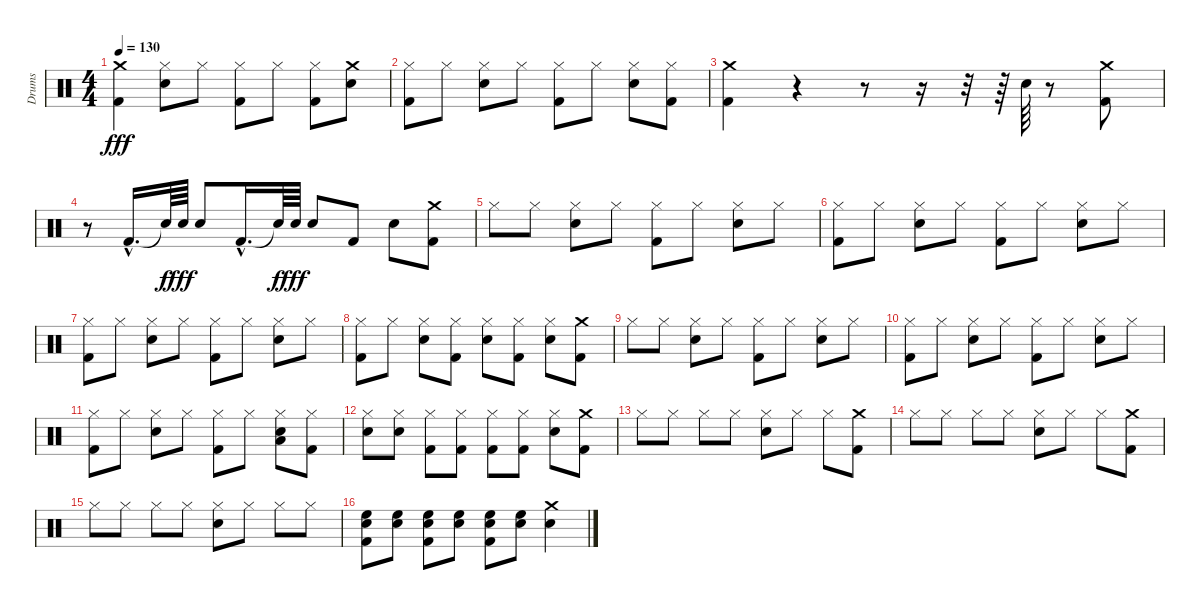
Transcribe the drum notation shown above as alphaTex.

\track ("Drums" "Drums") {instrument percussion}
\staff {score}
\articulation defaults
\ts (4 4)
\tempo 130
\clef neutral
\ks c
("Kick (hit) 2" "Crash medium (hit)").4{dy fff} ("Hi-Hat (closed)" "Snare (hit) 2").8 "Hi-Hat (closed)".8 ("Kick (hit) 2" "Hi-Hat (closed)").8 "Hi-Hat (closed)".8 ("Kick (hit) 2" "Hi-Hat (closed)").8 ("Crash medium (hit)" "Snare (hit) 2").8 |
("Kick (hit) 2" "Hi-Hat (closed)").8 "Hi-Hat (closed)".8 ("Snare (hit) 2" "Hi-Hat (closed)").8 "Hi-Hat (closed)".8 ("Kick (hit) 2" "Hi-Hat (closed)").8 "Hi-Hat (closed)".8 ("Snare (hit) 2" "Hi-Hat (closed)").8 ("Kick (hit) 2" "Hi-Hat (closed)").8 |
("Kick (hit) 2" "Crash medium (hit)").4 r.4 r.8 r.16 r.32 r.64 "Snare (hit) 2".64 r.8 ("Kick (hit) 2" "Crash medium (hit)").8 |
r.8 "Kick (hit) 2"{hac}.16{d} "Snare (hit)"{t}.64{dy f} "Snare (hit) 2".64{dy fff} "Snare (hit) 2".8 "Kick (hit) 2"{hac}.16{d} "Snare (hit)"{t}.64{dy f} "Snare (hit) 2".64{dy fff} "Snare (hit) 2".8 "Kick (hit) 2".8 "Snare (hit) 2".8 ("Crash medium (hit)" "Kick (hit) 2").8 |
"Hi-Hat (closed)".8 "Hi-Hat (closed)".8 ("Snare (hit) 2" "Hi-Hat (closed)").8 "Hi-Hat (closed)".8 ("Kick (hit) 2" "Hi-Hat (closed)").8 "Hi-Hat (closed)".8 ("Snare (hit) 2" "Hi-Hat (closed)").8 "Hi-Hat (closed)".8 |
("Kick (hit) 2" "Hi-Hat (closed)").8 "Hi-Hat (closed)".8 ("Snare (hit) 2" "Hi-Hat (closed)").8 "Hi-Hat (closed)".8 ("Kick (hit) 2" "Hi-Hat (closed)").8 "Hi-Hat (closed)".8 ("Snare (hit) 2" "Hi-Hat (closed)").8 "Hi-Hat (closed)".8 |
("Kick (hit) 2" "Hi-Hat (closed)").8 "Hi-Hat (closed)".8 ("Snare (hit) 2" "Hi-Hat (closed)").8 "Hi-Hat (closed)".8 ("Kick (hit) 2" "Hi-Hat (closed)").8 "Hi-Hat (closed)".8 ("Snare (hit) 2" "Hi-Hat (closed)").8 "Hi-Hat (closed)".8 |
("Hi-Hat (closed)" "Kick (hit) 2").8 "Hi-Hat (closed)".8 ("Snare (hit) 2" "Hi-Hat (closed)").8 ("Kick (hit) 2" "Hi-Hat (closed)").8 ("Snare (hit) 2" "Hi-Hat (closed)").8 ("Hi-Hat (closed)" "Kick (hit) 2").8 ("Snare (hit) 2" "Hi-Hat (closed)").8 ("Crash medium (hit)" "Kick (hit) 2").8 |
"Hi-Hat (closed)".8 "Hi-Hat (closed)".8 ("Snare (hit) 2" "Hi-Hat (closed)").8 "Hi-Hat (closed)".8 ("Kick (hit) 2" "Hi-Hat (closed)").8 "Hi-Hat (closed)".8 ("Snare (hit) 2" "Hi-Hat (closed)").8 "Hi-Hat (closed)".8 |
("Kick (hit) 2" "Hi-Hat (closed)").8 "Hi-Hat (closed)".8 ("Snare (hit) 2" "Hi-Hat (closed)").8 "Hi-Hat (closed)".8 ("Kick (hit) 2" "Hi-Hat (closed)").8 "Hi-Hat (closed)".8 ("Snare (hit) 2" "Hi-Hat (closed)").8 "Hi-Hat (closed)".8 |
("Kick (hit) 2" "Hi-Hat (closed)").8 "Hi-Hat (closed)".8 ("Snare (hit) 2" "Hi-Hat (closed)").8 "Hi-Hat (closed)".8 ("Kick (hit) 2" "Hi-Hat (closed)").8 "Hi-Hat (closed)".8 ("Snare (hit) 2" "Hi-Hat (closed)" "Low Tom (hit)").8 ("Kick (hit) 2" "Hi-Hat (closed)").8 |
("Snare (hit) 2" "Hi-Hat (closed)").8 ("Snare (hit) 2" "Hi-Hat (closed)").8 ("Kick (hit) 2" "Hi-Hat (closed)").8 ("Kick (hit) 2" "Hi-Hat (closed)").8 ("Hi-Hat (closed)" "Kick (hit) 2").8 ("Hi-Hat (closed)" "Kick (hit) 2").8 ("Snare (hit) 2" "Hi-Hat (closed)").8 ("Crash medium (hit)" "Kick (hit) 2").8 |
"Hi-Hat (closed)".8 "Hi-Hat (closed)".8 "Hi-Hat (closed)".8 "Hi-Hat (closed)".8 ("Snare (hit) 2" "Hi-Hat (closed)").8 "Hi-Hat (closed)".8 "Hi-Hat (closed)".8 ("Kick (hit) 2" "Crash medium (hit)").8 |
"Hi-Hat (closed)".8 "Hi-Hat (closed)".8 "Hi-Hat (closed)".8 "Hi-Hat (closed)".8 ("Snare (hit) 2" "Hi-Hat (closed)").8 "Hi-Hat (closed)".8 "Hi-Hat (closed)".8 ("Kick (hit) 2" "Crash medium (hit)").8 |
"Hi-Hat (closed)".8 "Hi-Hat (closed)".8 "Hi-Hat (closed)".8 "Hi-Hat (closed)".8 ("Snare (hit) 2" "Hi-Hat (closed)").8 "Hi-Hat (closed)".8 "Hi-Hat (closed)".8 "Hi-Hat (closed)".8 |
("Kick (hit) 2" "High Floor Tom (hit)" "Snare (hit) 2").8 ("High Floor Tom (hit)" "Snare (hit) 2").8 ("Kick (hit) 2" "High Floor Tom (hit)" "Snare (hit) 2").8 ("High Floor Tom (hit)" "Snare (hit) 2").8 ("Kick (hit) 2" "High Floor Tom (hit)" "Snare (hit) 2").8 ("High Floor Tom (hit)" "Snare (hit) 2").8 ("Crash medium (hit)" "Snare (hit) 2").4
